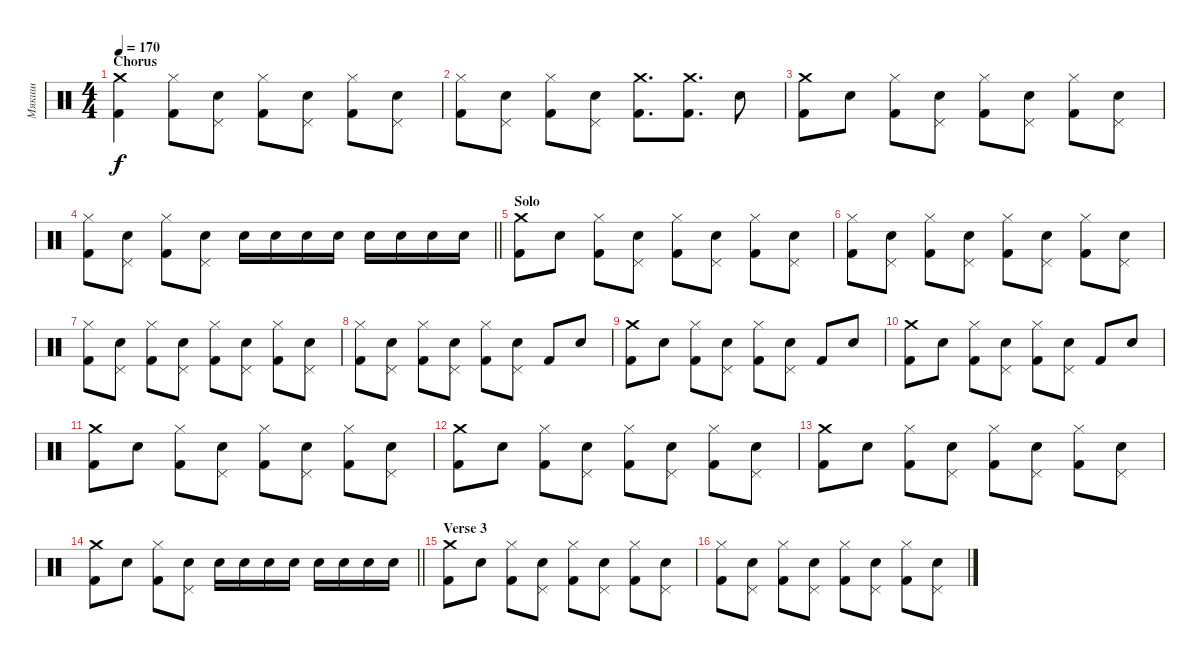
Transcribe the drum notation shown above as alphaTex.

\track ("Мякиш" "Мякиш") {instrument percussion}
\staff {score}
\articulation defaults
\ts (4 4)
\section ("" "Chorus")
\tempo 170
\clef neutral
\ks c
("Crash medium (hit)" "Kick (hit) 2").4{dy f} ("Hi-Hat (closed)" "Kick (hit) 2").8 ("Pedal Hi-Hat (hit)" "Electric Snare (hit)").8 ("Hi-Hat (closed)" "Kick (hit) 2").8 ("Pedal Hi-Hat (hit)" "Electric Snare (hit)").8 ("Hi-Hat (closed)" "Kick (hit) 2").8 ("Pedal Hi-Hat (hit)" "Electric Snare (hit)").8 |
("Hi-Hat (closed)" "Kick (hit) 2").8 ("Pedal Hi-Hat (hit)" "Electric Snare (hit)").8 ("Hi-Hat (closed)" "Kick (hit) 2").8 ("Pedal Hi-Hat (hit)" "Electric Snare (hit)").8 ("Crash medium (hit)" "Kick (hit) 2").8{d} ("Crash medium (hit)" "Kick (hit) 2").8{d} "Electric Snare (hit)".8 |
("Crash medium (hit)" "Kick (hit) 2").8 "Electric Snare (hit)".8 ("Hi-Hat (closed)" "Kick (hit) 2").8 ("Pedal Hi-Hat (hit)" "Electric Snare (hit)").8 ("Hi-Hat (closed)" "Kick (hit) 2").8 ("Pedal Hi-Hat (hit)" "Electric Snare (hit)").8 ("Hi-Hat (closed)" "Kick (hit) 2").8 ("Pedal Hi-Hat (hit)" "Electric Snare (hit)").8 |
\barLineRight lightlight
("Hi-Hat (closed)" "Kick (hit) 2").8 ("Pedal Hi-Hat (hit)" "Electric Snare (hit)").8 ("Hi-Hat (closed)" "Kick (hit) 2").8 ("Pedal Hi-Hat (hit)" "Electric Snare (hit)").8 "Electric Snare (hit)".16 "Electric Snare (hit)".16 "Electric Snare (hit)".16 "Electric Snare (hit)".16 "Electric Snare (hit)".16 "Electric Snare (hit)".16 "Electric Snare (hit)".16 "Electric Snare (hit)".16 |
\section ("" "Solo")
("Crash medium (hit)" "Kick (hit) 2").8 "Electric Snare (hit)".8 ("Hi-Hat (closed)" "Kick (hit) 2").8 ("Pedal Hi-Hat (hit)" "Electric Snare (hit)").8 ("Hi-Hat (closed)" "Kick (hit) 2").8 ("Pedal Hi-Hat (hit)" "Electric Snare (hit)").8 ("Hi-Hat (closed)" "Kick (hit) 2").8 ("Pedal Hi-Hat (hit)" "Electric Snare (hit)").8 |
("Hi-Hat (closed)" "Kick (hit) 2").8 ("Pedal Hi-Hat (hit)" "Electric Snare (hit)").8 ("Hi-Hat (closed)" "Kick (hit) 2").8 ("Pedal Hi-Hat (hit)" "Electric Snare (hit)").8 ("Hi-Hat (closed)" "Kick (hit) 2").8 ("Pedal Hi-Hat (hit)" "Electric Snare (hit)").8 ("Hi-Hat (closed)" "Kick (hit) 2").8 ("Pedal Hi-Hat (hit)" "Electric Snare (hit)").8 |
("Hi-Hat (closed)" "Kick (hit) 2").8 ("Pedal Hi-Hat (hit)" "Electric Snare (hit)").8 ("Hi-Hat (closed)" "Kick (hit) 2").8 ("Pedal Hi-Hat (hit)" "Electric Snare (hit)").8 ("Hi-Hat (closed)" "Kick (hit) 2").8 ("Pedal Hi-Hat (hit)" "Electric Snare (hit)").8 ("Hi-Hat (closed)" "Kick (hit) 2").8 ("Pedal Hi-Hat (hit)" "Electric Snare (hit)").8 |
("Hi-Hat (closed)" "Kick (hit) 2").8 ("Pedal Hi-Hat (hit)" "Electric Snare (hit)").8 ("Hi-Hat (closed)" "Kick (hit) 2").8 ("Pedal Hi-Hat (hit)" "Electric Snare (hit)").8 ("Hi-Hat (closed)" "Kick (hit) 2").8 ("Pedal Hi-Hat (hit)" "Electric Snare (hit)").8 "Kick (hit) 2".8 "Electric Snare (hit)".8 |
("Crash medium (hit)" "Kick (hit) 2").8 "Electric Snare (hit)".8 ("Hi-Hat (closed)" "Kick (hit) 2").8 ("Pedal Hi-Hat (hit)" "Electric Snare (hit)").8 ("Hi-Hat (closed)" "Kick (hit) 2").8 ("Pedal Hi-Hat (hit)" "Electric Snare (hit)").8 "Kick (hit) 2".8 "Electric Snare (hit)".8 |
("Crash medium (hit)" "Kick (hit) 2").8 "Electric Snare (hit)".8 ("Hi-Hat (closed)" "Kick (hit) 2").8 ("Pedal Hi-Hat (hit)" "Electric Snare (hit)").8 ("Hi-Hat (closed)" "Kick (hit) 2").8 ("Pedal Hi-Hat (hit)" "Electric Snare (hit)").8 "Kick (hit) 2".8 "Electric Snare (hit)".8 |
("Crash medium (hit)" "Kick (hit) 2").8 "Electric Snare (hit)".8 ("Hi-Hat (closed)" "Kick (hit) 2").8 ("Pedal Hi-Hat (hit)" "Electric Snare (hit)").8 ("Hi-Hat (closed)" "Kick (hit) 2").8 ("Pedal Hi-Hat (hit)" "Electric Snare (hit)").8 ("Hi-Hat (closed)" "Kick (hit) 2").8 ("Pedal Hi-Hat (hit)" "Electric Snare (hit)").8 |
("Crash medium (hit)" "Kick (hit) 2").8 "Electric Snare (hit)".8 ("Hi-Hat (closed)" "Kick (hit) 2").8 ("Pedal Hi-Hat (hit)" "Electric Snare (hit)").8 ("Hi-Hat (closed)" "Kick (hit) 2").8 ("Pedal Hi-Hat (hit)" "Electric Snare (hit)").8 ("Hi-Hat (closed)" "Kick (hit) 2").8 ("Pedal Hi-Hat (hit)" "Electric Snare (hit)").8 |
("Crash medium (hit)" "Kick (hit) 2").8 "Electric Snare (hit)".8 ("Hi-Hat (closed)" "Kick (hit) 2").8 ("Pedal Hi-Hat (hit)" "Electric Snare (hit)").8 ("Hi-Hat (closed)" "Kick (hit) 2").8 ("Pedal Hi-Hat (hit)" "Electric Snare (hit)").8 ("Hi-Hat (closed)" "Kick (hit) 2").8 ("Pedal Hi-Hat (hit)" "Electric Snare (hit)").8 |
\barLineRight lightlight
("Crash medium (hit)" "Kick (hit) 2").8 "Electric Snare (hit)".8 ("Hi-Hat (closed)" "Kick (hit) 2").8 ("Pedal Hi-Hat (hit)" "Electric Snare (hit)").8 "Electric Snare (hit)".16 "Electric Snare (hit)".16 "Electric Snare (hit)".16 "Electric Snare (hit)".16 "Electric Snare (hit)".16 "Electric Snare (hit)".16 "Electric Snare (hit)".16 "Electric Snare (hit)".16 |
\section ("" "Verse 3")
("Crash medium (hit)" "Kick (hit) 2").8 "Electric Snare (hit)".8 ("Hi-Hat (closed)" "Kick (hit) 2").8 ("Pedal Hi-Hat (hit)" "Electric Snare (hit)").8 ("Hi-Hat (closed)" "Kick (hit) 2").8 ("Pedal Hi-Hat (hit)" "Electric Snare (hit)").8 ("Hi-Hat (closed)" "Kick (hit) 2").8 ("Pedal Hi-Hat (hit)" "Electric Snare (hit)").8 |
("Hi-Hat (closed)" "Kick (hit) 2").8 ("Pedal Hi-Hat (hit)" "Electric Snare (hit)").8 ("Hi-Hat (closed)" "Kick (hit) 2").8 ("Pedal Hi-Hat (hit)" "Electric Snare (hit)").8 ("Hi-Hat (closed)" "Kick (hit) 2").8 ("Pedal Hi-Hat (hit)" "Electric Snare (hit)").8 ("Hi-Hat (closed)" "Kick (hit) 2").8 ("Pedal Hi-Hat (hit)" "Electric Snare (hit)").8
